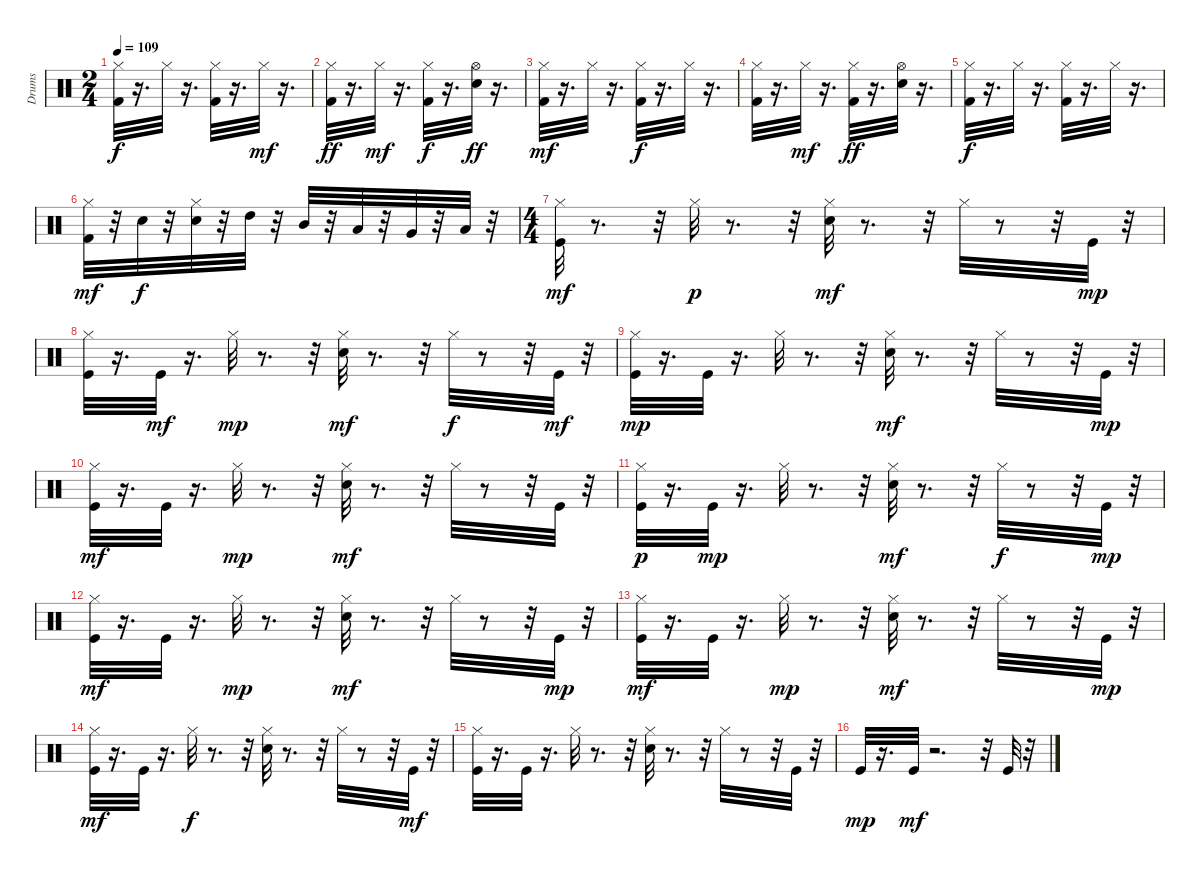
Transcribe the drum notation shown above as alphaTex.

\track ("Drums" "Drums") {solo instrument percussion}
\staff {score}
\articulation defaults
\ts (2 4)
\tempo 109
\clef neutral
\ks c
("Kick (hit) 2" "Hi-Hat (closed)").32{dy f} r.16{d} "Hi-Hat (closed)".32 r.16{d} ("Kick (hit) 2" "Hi-Hat (closed)").32 r.16{d} "Hi-Hat (closed)".32{dy mf} r.16{d} |
("Hi-Hat (closed)" "Kick (hit) 2").32{dy ff} r.16{d} "Hi-Hat (closed)".32{dy mf} r.16{d} ("Kick (hit) 2" "Hi-Hat (closed)").32{dy f} r.16{d} ("Electric Snare (hit)" "Hi-Hat (open)").32{dy ff} r.16{d} |
("Kick (hit) 2" "Hi-Hat (closed)").32{dy mf} r.16{d} "Hi-Hat (closed)".32 r.16{d} ("Kick (hit) 2" "Hi-Hat (closed)").32{dy f} r.16{d} "Hi-Hat (closed)".32 r.16{d} |
("Kick (hit) 2" "Hi-Hat (closed)").32 r.16{d} "Hi-Hat (closed)".32{dy mf} r.16{d} ("Kick (hit) 2" "Hi-Hat (closed)").32{dy ff} r.16{d} ("Electric Snare (hit)" "Hi-Hat (open)").32 r.16{d} |
("Kick (hit) 2" "Hi-Hat (closed)").32{dy f} r.16{d} "Hi-Hat (closed)".32 r.16{d} ("Kick (hit) 2" "Hi-Hat (closed)").32 r.16{d} "Hi-Hat (closed)".32 r.16{d} |
("Kick (hit) 2" "Hi-Hat (closed)").32{dy mf} r.32 "Electric Snare (hit)".32{dy f} r.32 ("Hi-Hat (closed)" "Electric Snare (hit)").32 r.32 "High Tom (hit)".32 r.32 "Mid Tom (hit)".32 r.32 "Low Tom (hit)".32 r.32 "Very Low Tom (hit)".32 r.32 "Low Floor Tom (hit)".32 r.32 |
\ts (4 4)
("Kick (hit)" "Hi-Hat (closed)").32{dy mf} r.8{d} r.32 "Hi-Hat (closed)".32{dy p} r.8{d} r.32 ("Hi-Hat (closed)" "Electric Snare (hit)").32{dy mf} r.8{d} r.32 "Hi-Hat (closed)".32 r.8 r.32 "Kick (hit)".32{dy mp} r.32 |
("Hi-Hat (closed)" "Kick (hit)").32 r.16{d} "Kick (hit)".32{dy mf} r.16{d} "Hi-Hat (closed)".32{dy mp} r.8{d} r.32 ("Hi-Hat (closed)" "Electric Snare (hit)").32{dy mf} r.8{d} r.32 "Hi-Hat (closed)".32{dy f} r.8 r.32 "Kick (hit)".32{dy mf} r.32 |
("Kick (hit)" "Hi-Hat (closed)").32{dy mp} r.16{d} "Kick (hit)".32 r.16{d} "Hi-Hat (closed)".32 r.8{d} r.32 ("Electric Snare (hit)" "Hi-Hat (closed)").32{dy mf} r.8{d} r.32 "Hi-Hat (closed)".32 r.8 r.32 "Kick (hit)".32{dy mp} r.32 |
("Hi-Hat (closed)" "Kick (hit)").32{dy mf} r.16{d} "Kick (hit)".32 r.16{d} "Hi-Hat (closed)".32{dy mp} r.8{d} r.32 ("Electric Snare (hit)" "Hi-Hat (closed)").32{dy mf} r.8{d} r.32 "Hi-Hat (closed)".32 r.8 r.32 "Kick (hit)".32 r.32 |
("Kick (hit)" "Hi-Hat (closed)").32{dy p} r.16{d} "Kick (hit)".32{dy mp} r.16{d} "Hi-Hat (closed)".32 r.8{d} r.32 ("Electric Snare (hit)" "Hi-Hat (closed)").32{dy mf} r.8{d} r.32 "Hi-Hat (closed)".32{dy f} r.8 r.32 "Kick (hit)".32{dy mp} r.32 |
("Hi-Hat (closed)" "Kick (hit)").32{dy mf} r.16{d} "Kick (hit)".32 r.16{d} "Hi-Hat (closed)".32{dy mp} r.8{d} r.32 ("Electric Snare (hit)" "Hi-Hat (closed)").32{dy mf} r.8{d} r.32 "Hi-Hat (closed)".32 r.8 r.32 "Kick (hit)".32{dy mp} r.32 |
("Hi-Hat (closed)" "Kick (hit)").32{dy mf} r.16{d} "Kick (hit)".32 r.16{d} "Hi-Hat (closed)".32{dy mp} r.8{d} r.32 ("Electric Snare (hit)" "Hi-Hat (closed)").32{dy mf} r.8{d} r.32 "Hi-Hat (closed)".32 r.8 r.32 "Kick (hit)".32{dy mp} r.32 |
("Kick (hit)" "Hi-Hat (closed)").32{dy mf} r.16{d} "Kick (hit)".32 r.16{d} "Hi-Hat (closed)".32{dy f} r.8{d} r.32 ("Electric Snare (hit)" "Hi-Hat (closed)").32 r.8{d} r.32 "Hi-Hat (closed)".32 r.8 r.32 "Kick (hit)".32{dy mf} r.32 |
("Hi-Hat (closed)" "Kick (hit)").32 r.16{d} "Kick (hit)".32 r.16{d} "Hi-Hat (closed)".32 r.8{d} r.32 ("Hi-Hat (closed)" "Electric Snare (hit)").32 r.8{d} r.32 "Hi-Hat (closed)".32 r.8 r.32 "Kick (hit)".32 r.32 |
"Kick (hit)".32{dy mp} r.16{d} "Kick (hit)".32{dy mf} r.2{d} r.32 "Kick (hit)".32 r.32
